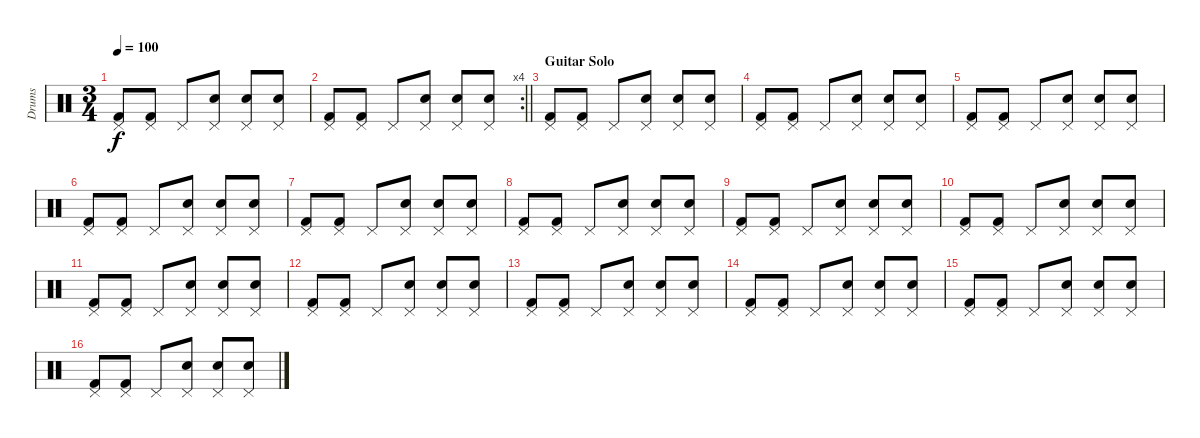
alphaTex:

\track ("Drums" "Drums") {instrument percussion}
\staff {score}
\articulation defaults
\ts (3 4)
\tempo 100
\clef neutral
\ks c
("Pedal Hi-Hat (hit)" "Kick (hit) 2").8{dy f} ("Pedal Hi-Hat (hit)" "Kick (hit) 2").8 "Pedal Hi-Hat (hit)".8 ("Pedal Hi-Hat (hit)" "Electric Snare (hit)").8 ("Pedal Hi-Hat (hit)" "Snare (hit) 2").8 ("Pedal Hi-Hat (hit)" "Snare (hit) 2").8 |
\rc 4
\barLineRight lightlight
("Pedal Hi-Hat (hit)" "Kick (hit) 2").8 ("Pedal Hi-Hat (hit)" "Kick (hit) 2").8 "Pedal Hi-Hat (hit)".8 ("Pedal Hi-Hat (hit)" "Electric Snare (hit)").8 ("Pedal Hi-Hat (hit)" "Snare (hit) 2").8 ("Pedal Hi-Hat (hit)" "Snare (hit) 2").8 |
\section ("" "Guitar Solo")
("Pedal Hi-Hat (hit)" "Kick (hit) 2").8 ("Pedal Hi-Hat (hit)" "Kick (hit) 2").8 "Pedal Hi-Hat (hit)".8 ("Pedal Hi-Hat (hit)" "Electric Snare (hit)").8 ("Pedal Hi-Hat (hit)" "Snare (hit) 2").8 ("Pedal Hi-Hat (hit)" "Snare (hit) 2").8 |
("Pedal Hi-Hat (hit)" "Kick (hit) 2").8 ("Pedal Hi-Hat (hit)" "Kick (hit) 2").8 "Pedal Hi-Hat (hit)".8 ("Pedal Hi-Hat (hit)" "Electric Snare (hit)").8 ("Pedal Hi-Hat (hit)" "Snare (hit) 2").8 ("Pedal Hi-Hat (hit)" "Snare (hit) 2").8 |
("Pedal Hi-Hat (hit)" "Kick (hit) 2").8 ("Pedal Hi-Hat (hit)" "Kick (hit) 2").8 "Pedal Hi-Hat (hit)".8 ("Pedal Hi-Hat (hit)" "Electric Snare (hit)").8 ("Pedal Hi-Hat (hit)" "Snare (hit) 2").8 ("Pedal Hi-Hat (hit)" "Snare (hit) 2").8 |
("Pedal Hi-Hat (hit)" "Kick (hit) 2").8 ("Pedal Hi-Hat (hit)" "Kick (hit) 2").8 "Pedal Hi-Hat (hit)".8 ("Pedal Hi-Hat (hit)" "Electric Snare (hit)").8 ("Pedal Hi-Hat (hit)" "Snare (hit) 2").8 ("Pedal Hi-Hat (hit)" "Snare (hit) 2").8 |
("Pedal Hi-Hat (hit)" "Kick (hit) 2").8 ("Pedal Hi-Hat (hit)" "Kick (hit) 2").8 "Pedal Hi-Hat (hit)".8 ("Pedal Hi-Hat (hit)" "Electric Snare (hit)").8 ("Pedal Hi-Hat (hit)" "Snare (hit) 2").8 ("Pedal Hi-Hat (hit)" "Snare (hit) 2").8 |
("Pedal Hi-Hat (hit)" "Kick (hit) 2").8 ("Pedal Hi-Hat (hit)" "Kick (hit) 2").8 "Pedal Hi-Hat (hit)".8 ("Pedal Hi-Hat (hit)" "Electric Snare (hit)").8 ("Pedal Hi-Hat (hit)" "Snare (hit) 2").8 ("Pedal Hi-Hat (hit)" "Snare (hit) 2").8 |
("Pedal Hi-Hat (hit)" "Kick (hit) 2").8 ("Pedal Hi-Hat (hit)" "Kick (hit) 2").8 "Pedal Hi-Hat (hit)".8 ("Pedal Hi-Hat (hit)" "Electric Snare (hit)").8 ("Pedal Hi-Hat (hit)" "Snare (hit) 2").8 ("Pedal Hi-Hat (hit)" "Snare (hit) 2").8 |
("Pedal Hi-Hat (hit)" "Kick (hit) 2").8 ("Pedal Hi-Hat (hit)" "Kick (hit) 2").8 "Pedal Hi-Hat (hit)".8 ("Pedal Hi-Hat (hit)" "Electric Snare (hit)").8 ("Pedal Hi-Hat (hit)" "Snare (hit) 2").8 ("Pedal Hi-Hat (hit)" "Snare (hit) 2").8 |
("Pedal Hi-Hat (hit)" "Kick (hit) 2").8 ("Pedal Hi-Hat (hit)" "Kick (hit) 2").8 "Pedal Hi-Hat (hit)".8 ("Pedal Hi-Hat (hit)" "Electric Snare (hit)").8 ("Pedal Hi-Hat (hit)" "Snare (hit) 2").8 ("Pedal Hi-Hat (hit)" "Snare (hit) 2").8 |
("Pedal Hi-Hat (hit)" "Kick (hit) 2").8 ("Pedal Hi-Hat (hit)" "Kick (hit) 2").8 "Pedal Hi-Hat (hit)".8 ("Pedal Hi-Hat (hit)" "Electric Snare (hit)").8 ("Pedal Hi-Hat (hit)" "Snare (hit) 2").8 ("Pedal Hi-Hat (hit)" "Snare (hit) 2").8 |
("Pedal Hi-Hat (hit)" "Kick (hit) 2").8 ("Pedal Hi-Hat (hit)" "Kick (hit) 2").8 "Pedal Hi-Hat (hit)".8 ("Pedal Hi-Hat (hit)" "Electric Snare (hit)").8 ("Pedal Hi-Hat (hit)" "Snare (hit) 2").8 ("Pedal Hi-Hat (hit)" "Snare (hit) 2").8 |
("Pedal Hi-Hat (hit)" "Kick (hit) 2").8 ("Pedal Hi-Hat (hit)" "Kick (hit) 2").8 "Pedal Hi-Hat (hit)".8 ("Pedal Hi-Hat (hit)" "Electric Snare (hit)").8 ("Pedal Hi-Hat (hit)" "Snare (hit) 2").8 ("Pedal Hi-Hat (hit)" "Snare (hit) 2").8 |
("Pedal Hi-Hat (hit)" "Kick (hit) 2").8 ("Pedal Hi-Hat (hit)" "Kick (hit) 2").8 "Pedal Hi-Hat (hit)".8 ("Pedal Hi-Hat (hit)" "Electric Snare (hit)").8 ("Pedal Hi-Hat (hit)" "Snare (hit) 2").8 ("Pedal Hi-Hat (hit)" "Snare (hit) 2").8 |
("Pedal Hi-Hat (hit)" "Kick (hit) 2").8 ("Pedal Hi-Hat (hit)" "Kick (hit) 2").8 "Pedal Hi-Hat (hit)".8 ("Pedal Hi-Hat (hit)" "Electric Snare (hit)").8 ("Pedal Hi-Hat (hit)" "Snare (hit) 2").8 ("Pedal Hi-Hat (hit)" "Snare (hit) 2").8
